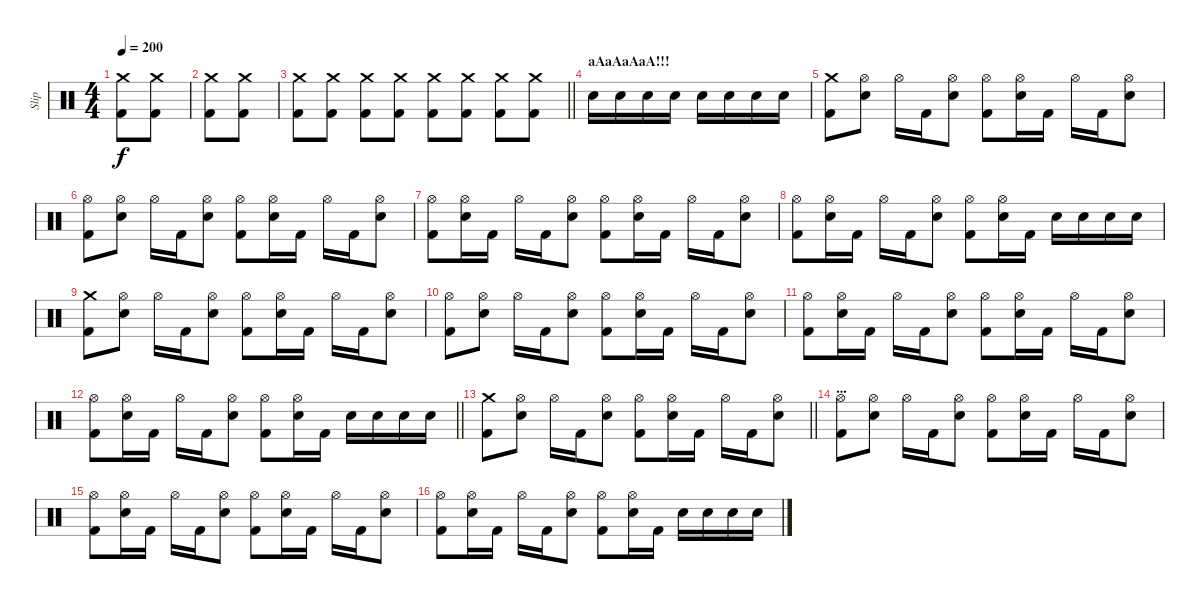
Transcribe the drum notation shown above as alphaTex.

\track ("Slip" "Slip") {instrument percussion}
\staff {score}
\articulation defaults
\ts (4 4)
\tempo 200
\clef neutral
\ks c
("Kick (hit) 2" "Crash medium (hit)").8{dy f} ("Kick (hit) 2" "Crash medium (hit)").8 |
("Kick (hit) 2" "Crash medium (hit)").8 ("Kick (hit) 2" "Crash medium (hit)").8 |
\barLineRight lightlight
("Kick (hit) 2" "Crash medium (hit)").8 ("Kick (hit) 2" "Crash medium (hit)").8 ("Kick (hit) 2" "Crash medium (hit)").8 ("Kick (hit) 2" "Crash medium (hit)").8 ("Kick (hit) 2" "Crash medium (hit)").8 ("Kick (hit) 2" "Crash medium (hit)").8 ("Kick (hit) 2" "Crash medium (hit)").8 ("Kick (hit) 2" "Crash medium (hit)").8 |
\section ("" "аАаАаАаА!!!")
"Electric Snare (hit)".16 "Electric Snare (hit)".16 "Electric Snare (hit)".16 "Electric Snare (hit)".16 "Electric Snare (hit)".16 "Electric Snare (hit)".16 "Electric Snare (hit)".16 "Electric Snare (hit)".16 |
("Kick (hit) 2" "Crash medium (hit)").8 ("Electric Snare (hit)" "Hi-Hat (open)").8 "Hi-Hat (open)".16 "Kick (hit) 2".16 ("Electric Snare (hit)" "Hi-Hat (open)").8 ("Kick (hit) 2" "Hi-Hat (open)").8 ("Electric Snare (hit)" "Hi-Hat (open)").16 "Kick (hit) 2".16 "Hi-Hat (open)".16 "Kick (hit) 2".16 ("Electric Snare (hit)" "Hi-Hat (open)").8 |
("Kick (hit) 2" "Hi-Hat (open)").8 ("Electric Snare (hit)" "Hi-Hat (open)").8 "Hi-Hat (open)".16 "Kick (hit) 2".16 ("Electric Snare (hit)" "Hi-Hat (open)").8 ("Kick (hit) 2" "Hi-Hat (open)").8 ("Electric Snare (hit)" "Hi-Hat (open)").16 "Kick (hit) 2".16 "Hi-Hat (open)".16 "Kick (hit) 2".16 ("Electric Snare (hit)" "Hi-Hat (open)").8 |
("Kick (hit) 2" "Hi-Hat (open)").8 ("Electric Snare (hit)" "Hi-Hat (open)").16 "Kick (hit) 2".16 "Hi-Hat (open)".16 "Kick (hit) 2".16 ("Electric Snare (hit)" "Hi-Hat (open)").8 ("Kick (hit) 2" "Hi-Hat (open)").8 ("Electric Snare (hit)" "Hi-Hat (open)").16 "Kick (hit) 2".16 "Hi-Hat (open)".16 "Kick (hit) 2".16 ("Electric Snare (hit)" "Hi-Hat (open)").8 |
("Kick (hit) 2" "Hi-Hat (open)").8 ("Electric Snare (hit)" "Hi-Hat (open)").16 "Kick (hit) 2".16 "Hi-Hat (open)".16 "Kick (hit) 2".16 ("Electric Snare (hit)" "Hi-Hat (open)").8 ("Kick (hit) 2" "Hi-Hat (open)").8 ("Electric Snare (hit)" "Hi-Hat (open)").16 "Kick (hit) 2".16 "Electric Snare (hit)".16 "Electric Snare (hit)".16 "Electric Snare (hit)".16 "Electric Snare (hit)".16 |
("Kick (hit) 2" "Crash medium (hit)").8 ("Electric Snare (hit)" "Hi-Hat (open)").8 "Hi-Hat (open)".16 "Kick (hit) 2".16 ("Electric Snare (hit)" "Hi-Hat (open)").8 ("Kick (hit) 2" "Hi-Hat (open)").8 ("Electric Snare (hit)" "Hi-Hat (open)").16 "Kick (hit) 2".16 "Hi-Hat (open)".16 "Kick (hit) 2".16 ("Electric Snare (hit)" "Hi-Hat (open)").8 |
("Kick (hit) 2" "Hi-Hat (open)").8 ("Electric Snare (hit)" "Hi-Hat (open)").8 "Hi-Hat (open)".16 "Kick (hit) 2".16 ("Electric Snare (hit)" "Hi-Hat (open)").8 ("Kick (hit) 2" "Hi-Hat (open)").8 ("Electric Snare (hit)" "Hi-Hat (open)").16 "Kick (hit) 2".16 "Hi-Hat (open)".16 "Kick (hit) 2".16 ("Electric Snare (hit)" "Hi-Hat (open)").8 |
("Kick (hit) 2" "Hi-Hat (open)").8 ("Electric Snare (hit)" "Hi-Hat (open)").16 "Kick (hit) 2".16 "Hi-Hat (open)".16 "Kick (hit) 2".16 ("Electric Snare (hit)" "Hi-Hat (open)").8 ("Kick (hit) 2" "Hi-Hat (open)").8 ("Electric Snare (hit)" "Hi-Hat (open)").16 "Kick (hit) 2".16 "Hi-Hat (open)".16 "Kick (hit) 2".16 ("Electric Snare (hit)" "Hi-Hat (open)").8 |
\barLineRight lightlight
("Kick (hit) 2" "Hi-Hat (open)").8 ("Electric Snare (hit)" "Hi-Hat (open)").16 "Kick (hit) 2".16 "Hi-Hat (open)".16 "Kick (hit) 2".16 ("Electric Snare (hit)" "Hi-Hat (open)").8 ("Kick (hit) 2" "Hi-Hat (open)").8 ("Electric Snare (hit)" "Hi-Hat (open)").16 "Kick (hit) 2".16 "Electric Snare (hit)".16 "Electric Snare (hit)".16 "Electric Snare (hit)".16 "Electric Snare (hit)".16 |
\barLineRight lightlight
("Kick (hit) 2" "Crash medium (hit)").8 ("Electric Snare (hit)" "Hi-Hat (open)").8 "Hi-Hat (open)".16 "Kick (hit) 2".16 ("Electric Snare (hit)" "Hi-Hat (open)").8 ("Kick (hit) 2" "Hi-Hat (open)").8 ("Electric Snare (hit)" "Hi-Hat (open)").16 "Kick (hit) 2".16 "Hi-Hat (open)".16 "Kick (hit) 2".16 ("Electric Snare (hit)" "Hi-Hat (open)").8 |
\section ("" "...")
("Kick (hit) 2" "Hi-Hat (open)").8 ("Electric Snare (hit)" "Hi-Hat (open)").8 "Hi-Hat (open)".16 "Kick (hit) 2".16 ("Electric Snare (hit)" "Hi-Hat (open)").8 ("Kick (hit) 2" "Hi-Hat (open)").8 ("Electric Snare (hit)" "Hi-Hat (open)").16 "Kick (hit) 2".16 "Hi-Hat (open)".16 "Kick (hit) 2".16 ("Electric Snare (hit)" "Hi-Hat (open)").8 |
("Kick (hit) 2" "Hi-Hat (open)").8 ("Electric Snare (hit)" "Hi-Hat (open)").16 "Kick (hit) 2".16 "Hi-Hat (open)".16 "Kick (hit) 2".16 ("Electric Snare (hit)" "Hi-Hat (open)").8 ("Kick (hit) 2" "Hi-Hat (open)").8 ("Electric Snare (hit)" "Hi-Hat (open)").16 "Kick (hit) 2".16 "Hi-Hat (open)".16 "Kick (hit) 2".16 ("Electric Snare (hit)" "Hi-Hat (open)").8 |
("Kick (hit) 2" "Hi-Hat (open)").8 ("Electric Snare (hit)" "Hi-Hat (open)").16 "Kick (hit) 2".16 "Hi-Hat (open)".16 "Kick (hit) 2".16 ("Electric Snare (hit)" "Hi-Hat (open)").8 ("Kick (hit) 2" "Hi-Hat (open)").8 ("Electric Snare (hit)" "Hi-Hat (open)").16 "Kick (hit) 2".16 "Electric Snare (hit)".16 "Electric Snare (hit)".16 "Electric Snare (hit)".16 "Electric Snare (hit)".16
